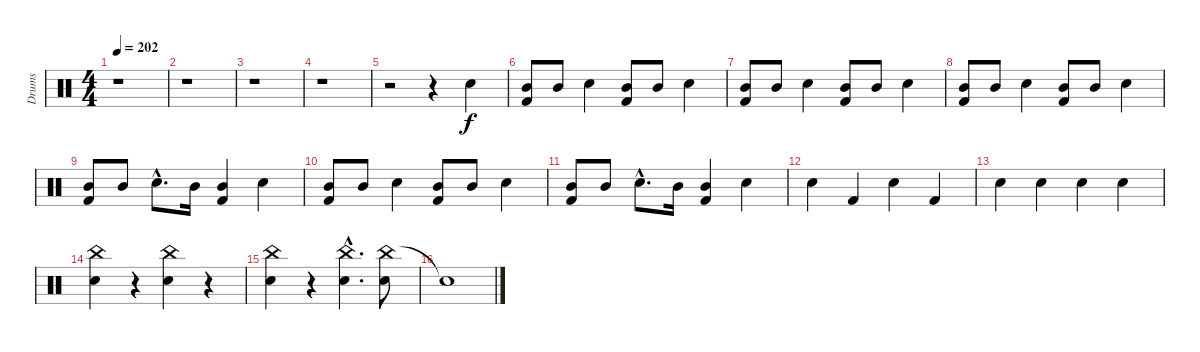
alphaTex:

\track ("Drums" "Drums") {instrument percussion}
\staff {score}
\articulation defaults
\ts (4 4)
\tempo 202
\clef neutral
\ks c
r.1{dy f} |
r.1 |
r.1 |
r.1 |
r.2 r.4 "Snare (hit) 2".4 |
("Mid Tom (hit)" "Kick (hit) 2").8 "Mid Tom (hit)".8 "Snare (hit) 2".4 ("Mid Tom (hit)" "Kick (hit) 2").8 "Mid Tom (hit)".8 "Snare (hit) 2".4 |
("Mid Tom (hit)" "Kick (hit) 2").8 "Mid Tom (hit)".8 "Snare (hit) 2".4 ("Mid Tom (hit)" "Kick (hit) 2").8 "Mid Tom (hit)".8 "Snare (hit) 2".4 |
("Mid Tom (hit)" "Kick (hit) 2").8 "Mid Tom (hit)".8 "Snare (hit) 2".4 ("Mid Tom (hit)" "Kick (hit) 2").8 "Mid Tom (hit)".8 "Snare (hit) 2".4 |
("Mid Tom (hit)" "Kick (hit) 2").8 "Mid Tom (hit)".8 "Snare (hit) 2"{hac}.8{d} "Mid Tom (hit)".16 ("Mid Tom (hit)" "Kick (hit) 2").4 "Snare (hit) 2".4 |
("Mid Tom (hit)" "Kick (hit) 2").8 "Mid Tom (hit)".8 "Snare (hit) 2".4 ("Mid Tom (hit)" "Kick (hit) 2").8 "Mid Tom (hit)".8 "Snare (hit) 2".4 |
("Mid Tom (hit)" "Kick (hit) 2").8 "Mid Tom (hit)".8 "Snare (hit) 2"{hac}.8{d} "Mid Tom (hit)".16 ("Mid Tom (hit)" "Kick (hit) 2").4 "Snare (hit) 2".4 |
"Snare (hit) 2".4 "Kick (hit) 2".4 "Snare (hit) 2".4 "Kick (hit) 2".4 |
"Snare (hit) 2".4 "Snare (hit) 2".4 "Snare (hit) 2".4 "Snare (hit) 2".4 |
("China (hit)" "Snare (hit) 2").4 r.4 ("China (hit)" "Snare (hit) 2").4 r.4 |
("China (hit)" "Snare (hit) 2").4 r.4 ("China (hit)"{hac} "Snare (hit) 2"{hac}).4{d} ("China (hit)" "Snare (hit) 2").8 |
"Snare (hit)"{t}.1
